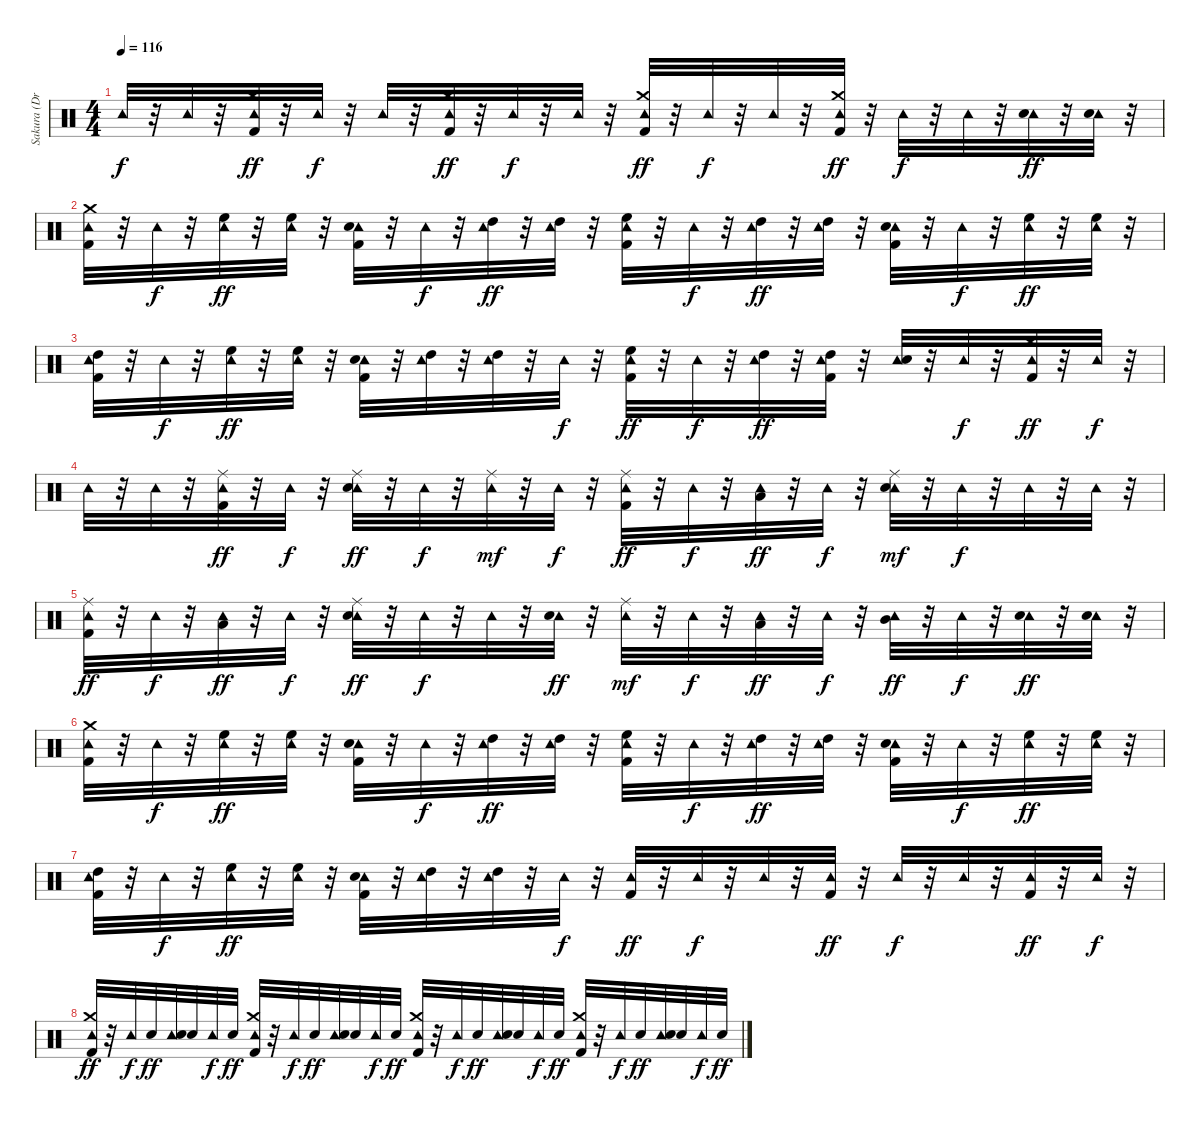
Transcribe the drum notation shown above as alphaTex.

\track ("Sakura (Drums)" "Sakura (Dr") {instrument percussion}
\staff {score}
\articulation defaults
\ts (4 4)
\tempo 116
\clef neutral
\ks c "Tambourine (hit)".32{dy f}
r.32 "Tambourine (hit)".32 r.32 ("Tambourine (hit)" "Crash medium (hit)" "Kick (hit) 2").32{dy ff} r.32 "Tambourine (hit)".32{dy f} r.32 "Tambourine (hit)".32 r.32 ("Tambourine (hit)" "Crash medium (hit)" "Kick (hit) 2").32{dy ff} r.32 "Tambourine (hit)".32{dy f} r.32 "Tambourine (hit)".32 r.32 ("Tambourine (hit)" "Kick (hit) 2" "Crash medium (hit)").32{dy ff} r.32 "Tambourine (hit)".32{dy f} r.32 "Tambourine (hit)".32 r.32 ("Tambourine (hit)" "Crash medium (hit)" "Kick (hit) 2").32{dy ff} r.32 "Tambourine (hit)".32{dy f} r.32 "Tambourine (hit)".32 r.32 ("Tambourine (hit)" "Electric Snare (hit)").32{dy ff} r.32 ("Tambourine (hit)" "Electric Snare (hit)").32 r.32 |
("Tambourine (hit)" "Crash medium (hit)" "Kick (hit) 2").32 r.32 "Tambourine (hit)".32{dy f} r.32 ("Tambourine (hit)" "High Floor Tom (hit)").32{dy ff} r.32 ("Tambourine (hit)" "High Floor Tom (hit)").32 r.32 ("Tambourine (hit)" "Electric Snare (hit)" "Kick (hit) 2").32 r.32 "Tambourine (hit)".32{dy f} r.32 ("Tambourine (hit)" "High Tom (hit)").32{dy ff} r.32 ("Tambourine (hit)" "High Tom (hit)").32 r.32 ("Tambourine (hit)" "High Floor Tom (hit)" "Kick (hit) 2").32 r.32 "Tambourine (hit)".32{dy f} r.32 ("Tambourine (hit)" "High Tom (hit)").32{dy ff} r.32 ("Tambourine (hit)" "High Tom (hit)").32 r.32 ("Tambourine (hit)" "Electric Snare (hit)" "Kick (hit) 2").32 r.32 "Tambourine (hit)".32{dy f} r.32 ("Tambourine (hit)" "High Floor Tom (hit)").32{dy ff} r.32 ("Tambourine (hit)" "High Floor Tom (hit)").32 r.32 |
("Tambourine (hit)" "High Tom (hit)" "Kick (hit) 2").32 r.32 "Tambourine (hit)".32{dy f} r.32 ("Tambourine (hit)" "High Floor Tom (hit)").32{dy ff} r.32 ("Tambourine (hit)" "High Floor Tom (hit)").32 r.32 ("Tambourine (hit)" "Electric Snare (hit)" "Kick (hit) 2").32 r.32 ("Tambourine (hit)" "High Tom (hit)").32 r.32 ("Tambourine (hit)" "High Tom (hit)").32 r.32 "Tambourine (hit)".32{dy f} r.32 ("Tambourine (hit)" "High Floor Tom (hit)" "Kick (hit) 2").32{dy ff} r.32 "Tambourine (hit)".32{dy f} r.32 ("Tambourine (hit)" "High Tom (hit)").32{dy ff} r.32 ("Tambourine (hit)" "High Tom (hit)" "Kick (hit) 2").32 r.32 ("Tambourine (hit)" "Electric Snare (hit)").32 r.32 "Tambourine (hit)".32{dy f} r.32 ("Tambourine (hit)" "Crash medium (hit)" "Kick (hit) 2").32{dy ff} r.32 "Tambourine (hit)".32{dy f} r.32 |
"Tambourine (hit)".32 r.32 "Tambourine (hit)".32 r.32 ("Tambourine (hit)" "Ride (middle)" "Kick (hit) 2").32{dy ff} r.32 "Tambourine (hit)".32{dy f} r.32 ("Tambourine (hit)" "Ride (middle)" "Electric Snare (hit)").32{dy ff} r.32 "Tambourine (hit)".32{dy f} r.32 ("Tambourine (hit)" "Ride (middle)").32{dy mf} r.32 "Tambourine (hit)".32{dy f} r.32 ("Tambourine (hit)" "Ride (middle)" "Kick (hit) 2").32{dy ff} r.32 "Tambourine (hit)".32{dy f} r.32 ("Tambourine (hit)" "Low Tom (hit)").32{dy ff} r.32 "Tambourine (hit)".32{dy f} r.32 ("Tambourine (hit)" "Ride (middle)" "Electric Snare (hit)").32{dy mf} r.32 "Tambourine (hit)".32{dy f} r.32 "Tambourine (hit)".32 r.32 "Tambourine (hit)".32 r.32 |
("Tambourine (hit)" "Ride (middle)" "Kick (hit) 2").32{dy ff} r.32 "Tambourine (hit)".32{dy f} r.32 ("Tambourine (hit)" "Low Tom (hit)").32{dy ff} r.32 "Tambourine (hit)".32{dy f} r.32 ("Tambourine (hit)" "Ride (middle)" "Electric Snare (hit)").32{dy ff} r.32 "Tambourine (hit)".32{dy f} r.32 "Tambourine (hit)".32 r.32 ("Tambourine (hit)" "Electric Snare (hit)").32{dy ff} r.32 ("Tambourine (hit)" "Ride (middle)").32{dy mf} r.32 "Tambourine (hit)".32{dy f} r.32 ("Tambourine (hit)" "Low Tom (hit)").32{dy ff} r.32 "Tambourine (hit)".32{dy f} r.32 ("Tambourine (hit)" "Mid Tom (hit)").32{dy ff} r.32 "Tambourine (hit)".32{dy f} r.32 ("Tambourine (hit)" "Electric Snare (hit)").32{dy ff} r.32 ("Tambourine (hit)" "Electric Snare (hit)").32 r.32 |
("Tambourine (hit)" "Crash medium (hit)" "Kick (hit) 2").32 r.32 "Tambourine (hit)".32{dy f} r.32 ("Tambourine (hit)" "High Floor Tom (hit)").32{dy ff} r.32 ("Tambourine (hit)" "High Floor Tom (hit)").32 r.32 ("Tambourine (hit)" "Electric Snare (hit)" "Kick (hit) 2").32 r.32 "Tambourine (hit)".32{dy f} r.32 ("Tambourine (hit)" "High Tom (hit)").32{dy ff} r.32 ("Tambourine (hit)" "High Tom (hit)").32 r.32 ("Tambourine (hit)" "High Floor Tom (hit)" "Kick (hit) 2").32 r.32 "Tambourine (hit)".32{dy f} r.32 ("Tambourine (hit)" "High Tom (hit)").32{dy ff} r.32 ("Tambourine (hit)" "High Tom (hit)").32 r.32 ("Tambourine (hit)" "Electric Snare (hit)" "Kick (hit) 2").32 r.32 "Tambourine (hit)".32{dy f} r.32 ("Tambourine (hit)" "High Floor Tom (hit)").32{dy ff} r.32 ("Tambourine (hit)" "High Floor Tom (hit)").32 r.32 |
("Tambourine (hit)" "High Tom (hit)" "Kick (hit) 2").32 r.32 "Tambourine (hit)".32{dy f} r.32 ("Tambourine (hit)" "High Floor Tom (hit)").32{dy ff} r.32 ("Tambourine (hit)" "High Floor Tom (hit)").32 r.32 ("Tambourine (hit)" "Electric Snare (hit)" "Kick (hit) 2").32 r.32 ("Tambourine (hit)" "High Tom (hit)").32 r.32 ("Tambourine (hit)" "High Tom (hit)").32 r.32 "Tambourine (hit)".32{dy f} r.32 ("Tambourine (hit)" "Kick (hit) 2").32{dy ff} r.32 "Tambourine (hit)".32{dy f} r.32 "Tambourine (hit)".32 r.32 ("Tambourine (hit)" "Kick (hit) 2").32{dy ff} r.32 "Tambourine (hit)".32{dy f} r.32 "Tambourine (hit)".32 r.32 ("Tambourine (hit)" "Kick (hit) 2").32{dy ff} r.32 "Tambourine (hit)".32{dy f} r.32 |
("Tambourine (hit)" "Crash medium (hit)" "Kick (hit) 2").32{dy ff} r.32 "Tambourine (hit)".32{dy f} "Electric Snare (hit)".32{dy ff} ("Tambourine (hit)" "Electric Snare (hit)").32 "Electric Snare (hit)".32 "Tambourine (hit)".32{dy f} "Electric Snare (hit)".32{dy ff} ("Tambourine (hit)" "Crash medium (hit)" "Kick (hit) 2").32 r.32 "Tambourine (hit)".32{dy f} "Electric Snare (hit)".32{dy ff} ("Tambourine (hit)" "Electric Snare (hit)").32 "Electric Snare (hit)".32 "Tambourine (hit)".32{dy f} "Electric Snare (hit)".32{dy ff} ("Tambourine (hit)" "Crash medium (hit)" "Kick (hit) 2").32 r.32 "Tambourine (hit)".32{dy f} "Electric Snare (hit)".32{dy ff} ("Tambourine (hit)" "Electric Snare (hit)").32 "Electric Snare (hit)".32 "Tambourine (hit)".32{dy f} "Electric Snare (hit)".32{dy ff} ("Tambourine (hit)" "Crash medium (hit)" "Kick (hit) 2").32 r.32 "Tambourine (hit)".32{dy f} "Electric Snare (hit)".32{dy ff} ("Tambourine (hit)" "Electric Snare (hit)").32 "Electric Snare (hit)".32 "Tambourine (hit)".32{dy f} "Electric Snare (hit)".32{dy ff}
